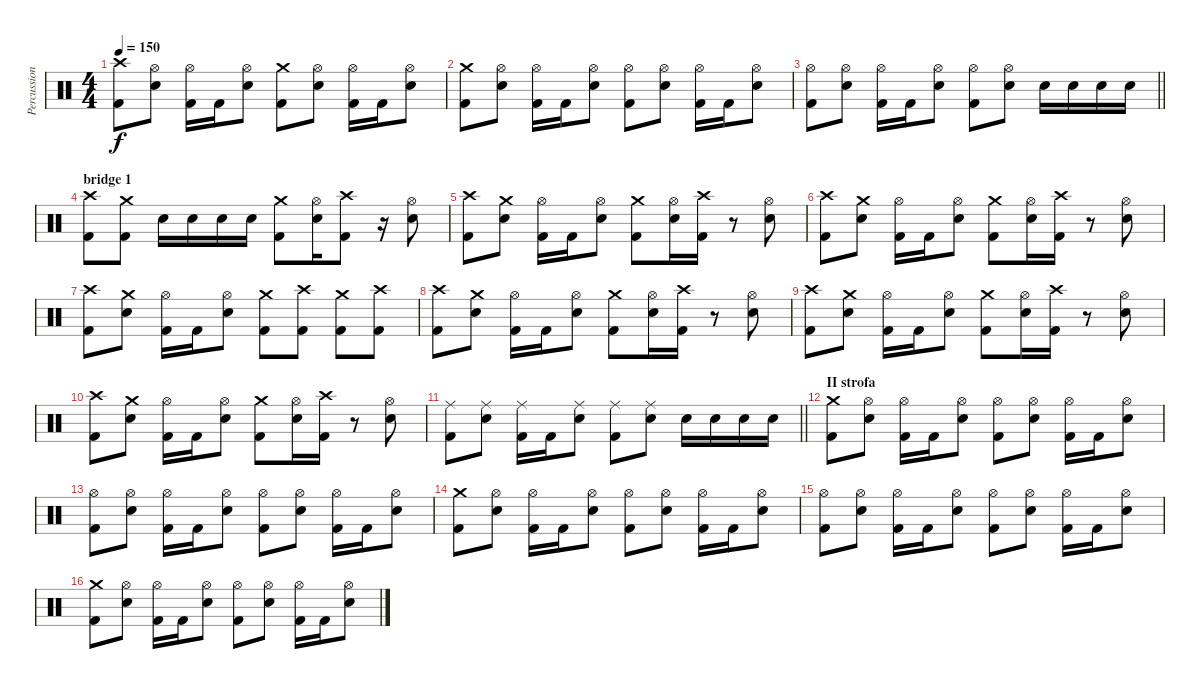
\track ("Percussion" "Percussion") {instrument percussion}
\staff {score}
\articulation defaults
\ts (4 4)
\tempo 150
\clef neutral
\ks c
("Kick (hit) 2" "Crash high (hit)").8{dy f} ("Snare (hit) 2" "Hi-Hat (open)").8 ("Kick (hit) 2" "Hi-Hat (open)").16 "Kick (hit) 2".16 ("Snare (hit) 2" "Hi-Hat (open)").8 ("Kick (hit) 2" "Crash medium (hit)").8 ("Snare (hit) 2" "Hi-Hat (open)").8 ("Kick (hit) 2" "Hi-Hat (open)").16 "Kick (hit) 2".16 ("Snare (hit) 2" "Hi-Hat (open)").8 |
("Kick (hit) 2" "Crash medium (hit)").8 ("Snare (hit) 2" "Hi-Hat (open)").8 ("Kick (hit) 2" "Hi-Hat (open)").16 "Kick (hit) 2".16 ("Snare (hit) 2" "Hi-Hat (open)").8 ("Kick (hit) 2" "Hi-Hat (open)").8 ("Snare (hit) 2" "Hi-Hat (open)").8 ("Kick (hit) 2" "Hi-Hat (open)").16 "Kick (hit) 2".16 ("Snare (hit) 2" "Hi-Hat (open)").8 |
\barLineRight lightlight
("Kick (hit) 2" "Hi-Hat (open)").8 ("Snare (hit) 2" "Hi-Hat (open)").8 ("Kick (hit) 2" "Hi-Hat (open)").16 "Kick (hit) 2".16 ("Snare (hit) 2" "Hi-Hat (open)").8 ("Kick (hit) 2" "Hi-Hat (open)").8 ("Snare (hit) 2" "Hi-Hat (open)").8 "Snare (hit) 2".16 "Snare (hit) 2".16 "Snare (hit) 2".16 "Snare (hit) 2".16 |
\section ("" "bridge 1")
("Kick (hit) 2" "Crash high (hit)").8 ("Kick (hit) 2" "Crash medium (hit)").8 "Snare (hit) 2".16 "Snare (hit) 2".16 "Snare (hit) 2".16 "Snare (hit) 2".16 ("Kick (hit) 2" "Crash medium (hit)").8 ("Snare (hit) 2" "Hi-Hat (open)").16 ("Kick (hit) 2" "Crash high (hit)").8 r.16 ("Snare (hit) 2" "Hi-Hat (open)").8 |
("Kick (hit) 2" "Crash high (hit)").8 ("Snare (hit) 2" "Crash medium (hit)").8 ("Kick (hit) 2" "Hi-Hat (open)").16 "Kick (hit) 2".16 ("Snare (hit) 2" "Hi-Hat (open)").8 ("Kick (hit) 2" "Crash medium (hit)").8 ("Snare (hit) 2" "Hi-Hat (open)").16 ("Kick (hit) 2" "Crash high (hit)").16 r.8 ("Snare (hit) 2" "Hi-Hat (open)").8 |
("Kick (hit) 2" "Crash high (hit)").8 ("Snare (hit) 2" "Crash medium (hit)").8 ("Kick (hit) 2" "Hi-Hat (open)").16 "Kick (hit) 2".16 ("Snare (hit) 2" "Hi-Hat (open)").8 ("Kick (hit) 2" "Crash medium (hit)").8 ("Snare (hit) 2" "Hi-Hat (open)").16 ("Kick (hit) 2" "Crash high (hit)").16 r.8 ("Snare (hit) 2" "Hi-Hat (open)").8 |
("Kick (hit) 2" "Crash high (hit)").8 ("Snare (hit) 2" "Crash medium (hit)").8 ("Kick (hit) 2" "Hi-Hat (open)").16 "Kick (hit) 2".16 ("Snare (hit) 2" "Hi-Hat (open)").8 ("Kick (hit) 2" "Crash medium (hit)").8 ("Kick (hit) 2" "Crash high (hit)").8 ("Kick (hit) 2" "Crash medium (hit)").8 ("Kick (hit) 2" "Crash high (hit)").8 |
("Kick (hit) 2" "Crash high (hit)").8 ("Snare (hit) 2" "Crash medium (hit)").8 ("Kick (hit) 2" "Hi-Hat (open)").16 "Kick (hit) 2".16 ("Snare (hit) 2" "Hi-Hat (open)").8 ("Kick (hit) 2" "Crash medium (hit)").8 ("Snare (hit) 2" "Hi-Hat (open)").16 ("Kick (hit) 2" "Crash high (hit)").16 r.8 ("Snare (hit) 2" "Hi-Hat (open)").8 |
("Kick (hit) 2" "Crash high (hit)").8 ("Snare (hit) 2" "Crash medium (hit)").8 ("Kick (hit) 2" "Hi-Hat (open)").16 "Kick (hit) 2".16 ("Snare (hit) 2" "Hi-Hat (open)").8 ("Kick (hit) 2" "Crash medium (hit)").8 ("Snare (hit) 2" "Hi-Hat (open)").16 ("Kick (hit) 2" "Crash high (hit)").16 r.8 ("Snare (hit) 2" "Hi-Hat (open)").8 |
("Kick (hit) 2" "Crash high (hit)").8 ("Snare (hit) 2" "Crash medium (hit)").8 ("Kick (hit) 2" "Hi-Hat (open)").16 "Kick (hit) 2".16 ("Snare (hit) 2" "Hi-Hat (open)").8 ("Kick (hit) 2" "Crash medium (hit)").8 ("Snare (hit) 2" "Hi-Hat (open)").16 ("Kick (hit) 2" "Crash high (hit)").16 r.8 ("Snare (hit) 2" "Hi-Hat (open)").8 |
\barLineRight lightlight
("Kick (hit) 2" "Ride (middle)").8 ("Snare (hit) 2" "Ride (middle)").8 ("Kick (hit) 2" "Ride (middle)").16 "Kick (hit) 2".16 ("Snare (hit) 2" "Ride (middle)").8 ("Kick (hit) 2" "Ride (middle)").8 ("Snare (hit) 2" "Ride (middle)").8 "Snare (hit) 2".16 "Snare (hit) 2".16 "Snare (hit) 2".16 "Snare (hit) 2".16 |
\section ("" "II strofa")
("Kick (hit) 2" "Crash medium (hit)").8 ("Snare (hit) 2" "Hi-Hat (open)").8 ("Kick (hit) 2" "Hi-Hat (open)").16 "Kick (hit) 2".16 ("Snare (hit) 2" "Hi-Hat (open)").8 ("Kick (hit) 2" "Hi-Hat (open)").8 ("Snare (hit) 2" "Hi-Hat (open)").8 ("Kick (hit) 2" "Hi-Hat (open)").16 "Kick (hit) 2".16 ("Snare (hit) 2" "Hi-Hat (open)").8 |
("Kick (hit) 2" "Hi-Hat (open)").8 ("Snare (hit) 2" "Hi-Hat (open)").8 ("Kick (hit) 2" "Hi-Hat (open)").16 "Kick (hit) 2".16 ("Snare (hit) 2" "Hi-Hat (open)").8 ("Kick (hit) 2" "Hi-Hat (open)").8 ("Snare (hit) 2" "Hi-Hat (open)").8 ("Kick (hit) 2" "Hi-Hat (open)").16 "Kick (hit) 2".16 ("Snare (hit) 2" "Hi-Hat (open)").8 |
("Kick (hit) 2" "Crash medium (hit)").8 ("Snare (hit) 2" "Hi-Hat (open)").8 ("Kick (hit) 2" "Hi-Hat (open)").16 "Kick (hit) 2".16 ("Snare (hit) 2" "Hi-Hat (open)").8 ("Kick (hit) 2" "Hi-Hat (open)").8 ("Snare (hit) 2" "Hi-Hat (open)").8 ("Kick (hit) 2" "Hi-Hat (open)").16 "Kick (hit) 2".16 ("Snare (hit) 2" "Hi-Hat (open)").8 |
("Kick (hit) 2" "Hi-Hat (open)").8 ("Snare (hit) 2" "Hi-Hat (open)").8 ("Kick (hit) 2" "Hi-Hat (open)").16 "Kick (hit) 2".16 ("Snare (hit) 2" "Hi-Hat (open)").8 ("Kick (hit) 2" "Hi-Hat (open)").8 ("Snare (hit) 2" "Hi-Hat (open)").8 ("Kick (hit) 2" "Hi-Hat (open)").16 "Kick (hit) 2".16 ("Snare (hit) 2" "Hi-Hat (open)").8 |
("Kick (hit) 2" "Crash medium (hit)").8 ("Snare (hit) 2" "Hi-Hat (open)").8 ("Kick (hit) 2" "Hi-Hat (open)").16 "Kick (hit) 2".16 ("Snare (hit) 2" "Hi-Hat (open)").8 ("Kick (hit) 2" "Hi-Hat (open)").8 ("Snare (hit) 2" "Hi-Hat (open)").8 ("Kick (hit) 2" "Hi-Hat (open)").16 "Kick (hit) 2".16 ("Snare (hit) 2" "Hi-Hat (open)").8
